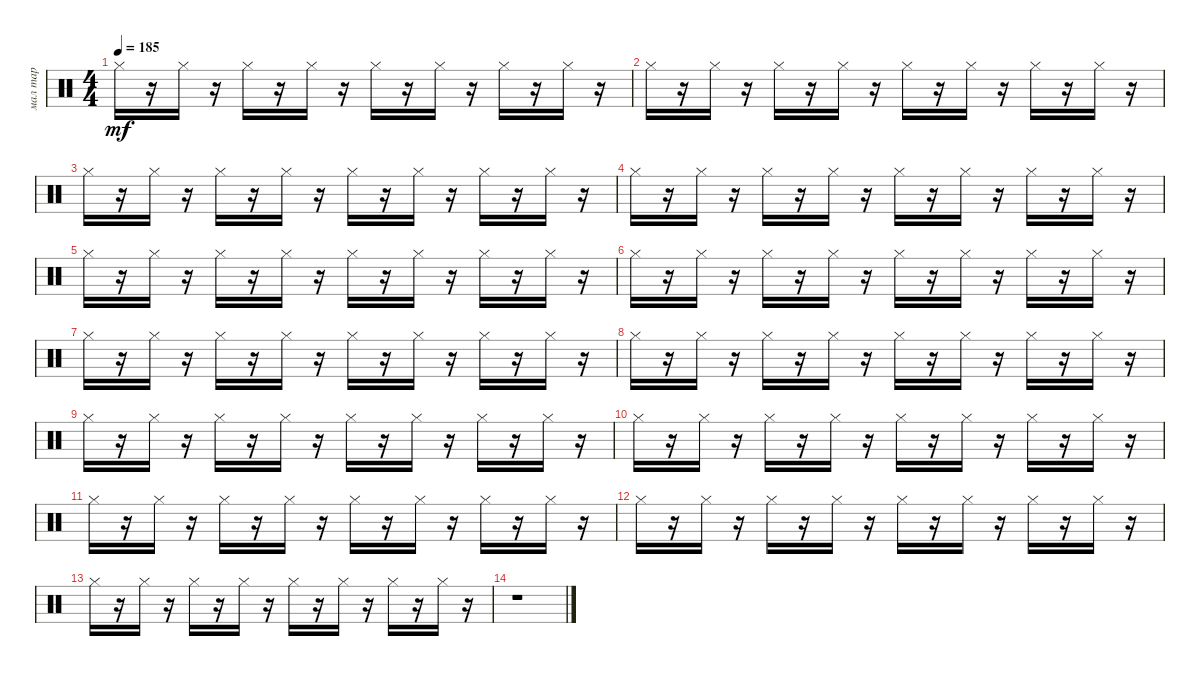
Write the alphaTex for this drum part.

\track ("мал тар" "мал тар") {instrument percussion}
\staff {score}
\articulation defaults
\ts (4 4)
\tempo 185
\clef neutral
\ks c "Hi-Hat (closed)".16{dy mf}
r.16 "Hi-Hat (closed)".16 r.16 "Hi-Hat (closed)".16 r.16 "Hi-Hat (closed)".16 r.16 "Hi-Hat (closed)".16 r.16 "Hi-Hat (closed)".16 r.16 "Hi-Hat (closed)".16 r.16 "Hi-Hat (closed)".16 r.16 |
"Hi-Hat (closed)".16 r.16 "Hi-Hat (closed)".16 r.16 "Hi-Hat (closed)".16 r.16 "Hi-Hat (closed)".16 r.16 "Hi-Hat (closed)".16 r.16 "Hi-Hat (closed)".16 r.16 "Hi-Hat (closed)".16 r.16 "Hi-Hat (closed)".16 r.16 |
"Hi-Hat (closed)".16 r.16 "Hi-Hat (closed)".16 r.16 "Hi-Hat (closed)".16 r.16 "Hi-Hat (closed)".16 r.16 "Hi-Hat (closed)".16 r.16 "Hi-Hat (closed)".16 r.16 "Hi-Hat (closed)".16 r.16 "Hi-Hat (closed)".16 r.16 |
"Hi-Hat (closed)".16 r.16 "Hi-Hat (closed)".16 r.16 "Hi-Hat (closed)".16 r.16 "Hi-Hat (closed)".16 r.16 "Hi-Hat (closed)".16 r.16 "Hi-Hat (closed)".16 r.16 "Hi-Hat (closed)".16 r.16 "Hi-Hat (closed)".16 r.16 |
"Hi-Hat (closed)".16 r.16 "Hi-Hat (closed)".16 r.16 "Hi-Hat (closed)".16 r.16 "Hi-Hat (closed)".16 r.16 "Hi-Hat (closed)".16 r.16 "Hi-Hat (closed)".16 r.16 "Hi-Hat (closed)".16 r.16 "Hi-Hat (closed)".16 r.16 |
"Hi-Hat (closed)".16 r.16 "Hi-Hat (closed)".16 r.16 "Hi-Hat (closed)".16 r.16 "Hi-Hat (closed)".16 r.16 "Hi-Hat (closed)".16 r.16 "Hi-Hat (closed)".16 r.16 "Hi-Hat (closed)".16 r.16 "Hi-Hat (closed)".16 r.16 |
"Hi-Hat (closed)".16 r.16 "Hi-Hat (closed)".16 r.16 "Hi-Hat (closed)".16 r.16 "Hi-Hat (closed)".16 r.16 "Hi-Hat (closed)".16 r.16 "Hi-Hat (closed)".16 r.16 "Hi-Hat (closed)".16 r.16 "Hi-Hat (closed)".16 r.16 |
"Hi-Hat (closed)".16 r.16 "Hi-Hat (closed)".16 r.16 "Hi-Hat (closed)".16 r.16 "Hi-Hat (closed)".16 r.16 "Hi-Hat (closed)".16 r.16 "Hi-Hat (closed)".16 r.16 "Hi-Hat (closed)".16 r.16 "Hi-Hat (closed)".16 r.16 |
"Hi-Hat (closed)".16 r.16 "Hi-Hat (closed)".16 r.16 "Hi-Hat (closed)".16 r.16 "Hi-Hat (closed)".16 r.16 "Hi-Hat (closed)".16 r.16 "Hi-Hat (closed)".16 r.16 "Hi-Hat (closed)".16 r.16 "Hi-Hat (closed)".16 r.16 |
"Hi-Hat (closed)".16 r.16 "Hi-Hat (closed)".16 r.16 "Hi-Hat (closed)".16 r.16 "Hi-Hat (closed)".16 r.16 "Hi-Hat (closed)".16 r.16 "Hi-Hat (closed)".16 r.16 "Hi-Hat (closed)".16 r.16 "Hi-Hat (closed)".16 r.16 |
"Hi-Hat (closed)".16 r.16 "Hi-Hat (closed)".16 r.16 "Hi-Hat (closed)".16 r.16 "Hi-Hat (closed)".16 r.16 "Hi-Hat (closed)".16 r.16 "Hi-Hat (closed)".16 r.16 "Hi-Hat (closed)".16 r.16 "Hi-Hat (closed)".16 r.16 |
"Hi-Hat (closed)".16 r.16 "Hi-Hat (closed)".16 r.16 "Hi-Hat (closed)".16 r.16 "Hi-Hat (closed)".16 r.16 "Hi-Hat (closed)".16 r.16 "Hi-Hat (closed)".16 r.16 "Hi-Hat (closed)".16 r.16 "Hi-Hat (closed)".16 r.16 |
"Hi-Hat (closed)".16 r.16 "Hi-Hat (closed)".16 r.16 "Hi-Hat (closed)".16 r.16 "Hi-Hat (closed)".16 r.16 "Hi-Hat (closed)".16 r.16 "Hi-Hat (closed)".16 r.16 "Hi-Hat (closed)".16 r.16 "Hi-Hat (closed)".16 r.16 |
r.1
